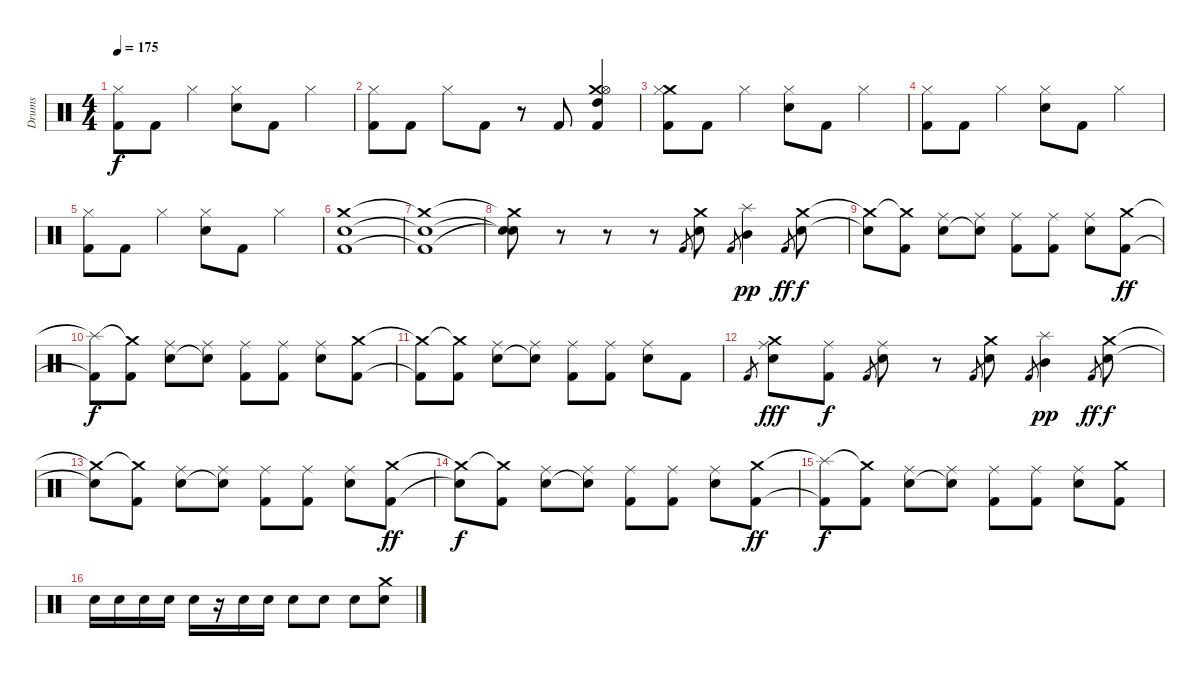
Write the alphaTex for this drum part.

\track ("Drums" "Drums") {instrument percussion}
\staff {score}
\articulation defaults
\ts (4 4)
\tempo 175
\clef neutral
\ks c
("Hi-Hat (closed)" "Kick (hit) 2").8{dy f} "Kick (hit) 2".8 "Hi-Hat (closed)".4 ("Hi-Hat (closed)" "Snare (hit) 2").8 "Kick (hit) 2".8 "Hi-Hat (closed)".4 |
("Hi-Hat (closed)" "Kick (hit) 2").8 "Kick (hit) 2".8 "Hi-Hat (closed)".8 "Kick (hit) 2".8 r.8 "Kick (hit) 2".8 ("Crash medium (hit)" "Hi-Hat (open)" "High Tom (hit)" "Kick (hit) 2").4 |
("Crash medium (hit)" "Hi-Hat (closed)" "Kick (hit) 2").8 "Kick (hit) 2".8 "Hi-Hat (closed)".4 ("Hi-Hat (closed)" "Snare (hit) 2").8 "Kick (hit) 2".8 "Hi-Hat (closed)".4 |
("Hi-Hat (closed)" "Kick (hit) 2").8 "Kick (hit) 2".8 "Hi-Hat (closed)".4 ("Hi-Hat (closed)" "Snare (hit) 2").8 "Kick (hit) 2".8 "Hi-Hat (closed)".4 |
("Hi-Hat (closed)" "Kick (hit) 2").8 "Kick (hit) 2".8 "Hi-Hat (closed)".4 ("Hi-Hat (closed)" "Snare (hit) 2").8 "Kick (hit) 2".8 "Hi-Hat (closed)".4 |
("Crash medium (hit)" "Snare (hit) 2" "Kick (hit) 2").1 |
("Crash medium (hit)"{t} "Snare (hit) 2"{t} "Kick (hit) 2"{t}).1 |
("Crash medium (hit)"{t} "Snare (hit) 2"{t} "Snare (hit)"{t}).8 r.8 r.8 r.8 "Kick (hit) 2".8{gr} ("Crash medium (hit)" "Snare (hit) 2").8 "Kick (hit) 2".8{gr} ("Splash (hit)" "Mid Tom (hit)").4{dy pp} "Kick (hit) 2".8{gr dy ff} ("Crash medium (hit)" "Snare (hit) 2").8{dy f} |
("Crash medium (hit)"{t} "Snare (hit) 2"{t}).8 ("Crash medium (hit)"{t} "Kick (hit) 2").8 ("Ride (middle)" "Snare (hit) 2").8 ("Ride (middle)" "Snare (hit) 2"{t}).8 ("Ride (middle)" "Kick (hit) 2").8 ("Ride (middle)" "Kick (hit) 2").8 ("Ride (middle)" "Snare (hit) 2").8 ("Crash medium (hit)" "Kick (hit) 2").8{dy ff} |
("Splash (hit)"{t} "Kick (hit) 2"{t}).8{dy f} ("Crash medium (hit)"{t} "Kick (hit) 2").8 ("Ride (middle)" "Snare (hit) 2").8 ("Ride (middle)" "Snare (hit) 2"{t}).8 ("Ride (middle)" "Kick (hit) 2").8 ("Ride (middle)" "Kick (hit) 2").8 ("Ride (middle)" "Snare (hit) 2").8 ("Crash medium (hit)" "Kick (hit) 2").8 |
("Crash medium (hit)"{t} "Kick (hit) 2"{t}).8 ("Crash medium (hit)"{t} "Kick (hit) 2").8 ("Ride (middle)" "Snare (hit) 2").8 ("Ride (middle)" "Snare (hit) 2"{t}).8 ("Ride (middle)" "Kick (hit) 2").8 ("Ride (middle)" "Kick (hit) 2").8 ("Ride (middle)" "Snare (hit) 2").8 "Kick (hit) 2".8 |
"Kick (hit) 2".8{gr} ("Crash medium (hit)" "Ride (middle)" "Snare (hit) 2").8{dy fff} ("Ride (middle)" "Kick (hit) 2").8{dy f} "Kick (hit) 2".8{gr} ("Ride (middle)" "Snare (hit) 2").8 r.8 "Kick (hit) 2".8{gr} ("Crash medium (hit)" "Snare (hit) 2").8 "Kick (hit) 2".8{gr} ("Splash (hit)" "Mid Tom (hit)").4{dy pp} "Kick (hit) 2".8{gr dy ff} ("Crash medium (hit)" "Snare (hit) 2").8{dy f} |
("Crash medium (hit)"{t} "Snare (hit) 2"{t}).8 ("Crash medium (hit)"{t} "Kick (hit) 2").8 ("Ride (middle)" "Snare (hit) 2").8 ("Ride (middle)" "Snare (hit) 2"{t}).8 ("Ride (middle)" "Kick (hit) 2").8 ("Ride (middle)" "Kick (hit) 2").8 ("Ride (middle)" "Snare (hit) 2").8 ("Crash medium (hit)" "Kick (hit) 2").8{dy ff} |
("Crash medium (hit)"{t} "Snare (hit) 2"{t}).8{dy f} ("Crash medium (hit)"{t} "Kick (hit) 2").8 ("Ride (middle)" "Snare (hit) 2").8 ("Ride (middle)" "Snare (hit) 2"{t}).8 ("Ride (middle)" "Kick (hit) 2").8 ("Ride (middle)" "Kick (hit) 2").8 ("Ride (middle)" "Snare (hit) 2").8 ("Crash medium (hit)" "Kick (hit) 2").8{dy ff} |
("Splash (hit)"{t} "Kick (hit) 2"{t}).8{dy f} ("Crash medium (hit)"{t} "Kick (hit) 2").8 ("Ride (middle)" "Snare (hit) 2").8 ("Ride (middle)" "Snare (hit) 2"{t}).8 ("Ride (middle)" "Kick (hit) 2").8 ("Ride (middle)" "Kick (hit) 2").8 ("Ride (middle)" "Snare (hit) 2").8 ("Crash medium (hit)" "Kick (hit) 2").8 |
"Snare (hit) 2".16 "Snare (hit) 2".16 "Snare (hit) 2".16 "Snare (hit) 2".16 "Snare (hit) 2".16 r.16 "Snare (hit) 2".16 "Snare (hit) 2".16 "Snare (hit) 2".8 "Snare (hit) 2".8 "Snare (hit) 2".8 ("Crash medium (hit)" "Snare (hit) 2").8
